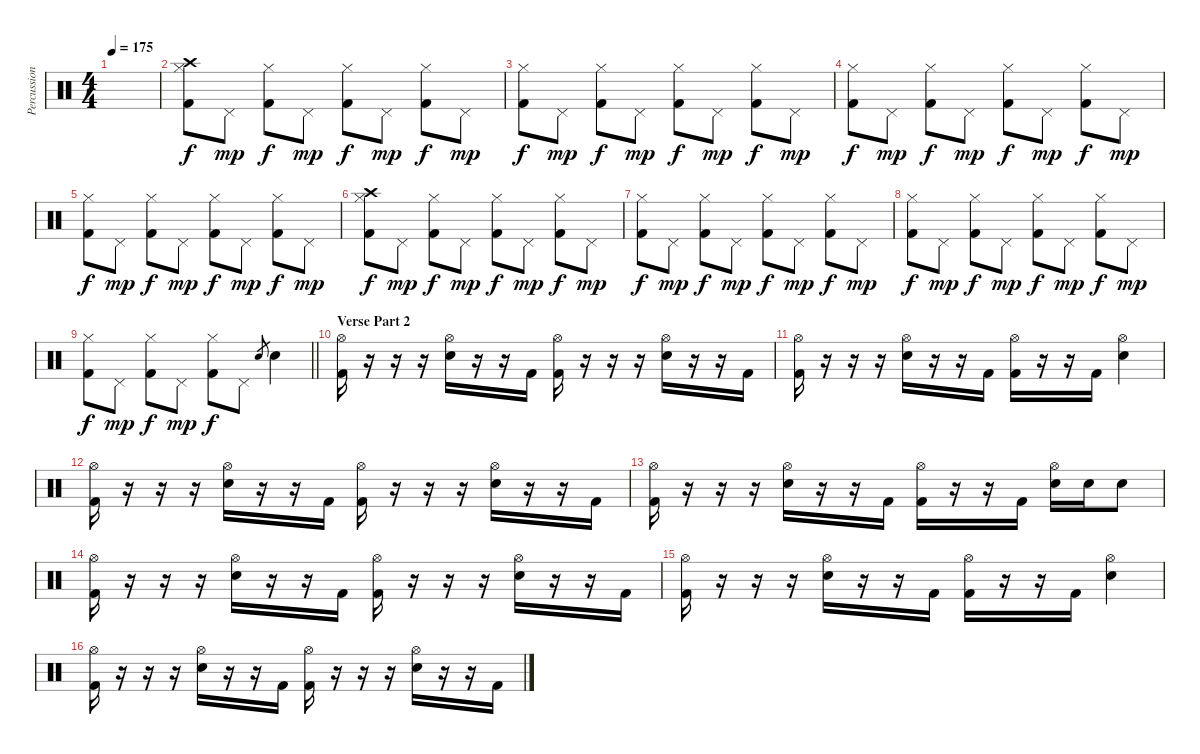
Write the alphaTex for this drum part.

\track ("Percussion" "Percussion") {instrument percussion}
\staff {score}
\articulation defaults
\ts (4 4)
\tempo 175
\clef neutral
\ks c
|
("Hi-Hat (closed)" "Kick (hit) 2" "Crash high (hit)").8 "Pedal Hi-Hat (hit)".8{dy mp} ("Hi-Hat (closed)" "Kick (hit) 2").8{dy f} "Pedal Hi-Hat (hit)".8{dy mp} ("Hi-Hat (closed)" "Kick (hit) 2").8{dy f} "Pedal Hi-Hat (hit)".8{dy mp} ("Hi-Hat (closed)" "Kick (hit) 2").8{dy f} "Pedal Hi-Hat (hit)".8{dy mp} |
("Hi-Hat (closed)" "Kick (hit) 2").8{dy f} "Pedal Hi-Hat (hit)".8{dy mp} ("Hi-Hat (closed)" "Kick (hit) 2").8{dy f} "Pedal Hi-Hat (hit)".8{dy mp} ("Hi-Hat (closed)" "Kick (hit) 2").8{dy f} "Pedal Hi-Hat (hit)".8{dy mp} ("Hi-Hat (closed)" "Kick (hit) 2").8{dy f} "Pedal Hi-Hat (hit)".8{dy mp} |
("Hi-Hat (closed)" "Kick (hit) 2").8{dy f} "Pedal Hi-Hat (hit)".8{dy mp} ("Hi-Hat (closed)" "Kick (hit) 2").8{dy f} "Pedal Hi-Hat (hit)".8{dy mp} ("Hi-Hat (closed)" "Kick (hit) 2").8{dy f} "Pedal Hi-Hat (hit)".8{dy mp} ("Hi-Hat (closed)" "Kick (hit) 2").8{dy f} "Pedal Hi-Hat (hit)".8{dy mp} |
("Hi-Hat (closed)" "Kick (hit) 2").8{dy f} "Pedal Hi-Hat (hit)".8{dy mp} ("Hi-Hat (closed)" "Kick (hit) 2").8{dy f} "Pedal Hi-Hat (hit)".8{dy mp} ("Hi-Hat (closed)" "Kick (hit) 2").8{dy f} "Pedal Hi-Hat (hit)".8{dy mp} ("Hi-Hat (closed)" "Kick (hit) 2").8{dy f} "Pedal Hi-Hat (hit)".8{dy mp} |
("Hi-Hat (closed)" "Kick (hit) 2" "Crash high (hit)").8{dy f} "Pedal Hi-Hat (hit)".8{dy mp} ("Hi-Hat (closed)" "Kick (hit) 2").8{dy f} "Pedal Hi-Hat (hit)".8{dy mp} ("Hi-Hat (closed)" "Kick (hit) 2").8{dy f} "Pedal Hi-Hat (hit)".8{dy mp} ("Hi-Hat (closed)" "Kick (hit) 2").8{dy f} "Pedal Hi-Hat (hit)".8{dy mp} |
("Hi-Hat (closed)" "Kick (hit) 2").8{dy f} "Pedal Hi-Hat (hit)".8{dy mp} ("Hi-Hat (closed)" "Kick (hit) 2").8{dy f} "Pedal Hi-Hat (hit)".8{dy mp} ("Hi-Hat (closed)" "Kick (hit) 2").8{dy f} "Pedal Hi-Hat (hit)".8{dy mp} ("Hi-Hat (closed)" "Kick (hit) 2").8{dy f} "Pedal Hi-Hat (hit)".8{dy mp} |
("Hi-Hat (closed)" "Kick (hit) 2").8{dy f} "Pedal Hi-Hat (hit)".8{dy mp} ("Hi-Hat (closed)" "Kick (hit) 2").8{dy f} "Pedal Hi-Hat (hit)".8{dy mp} ("Hi-Hat (closed)" "Kick (hit) 2").8{dy f} "Pedal Hi-Hat (hit)".8{dy mp} ("Hi-Hat (closed)" "Kick (hit) 2").8{dy f} "Pedal Hi-Hat (hit)".8{dy mp} |
\barLineRight lightlight
("Hi-Hat (closed)" "Kick (hit) 2").8{dy f} "Pedal Hi-Hat (hit)".8{dy mp} ("Hi-Hat (closed)" "Kick (hit) 2").8{dy f} "Pedal Hi-Hat (hit)".8{dy mp} ("Hi-Hat (closed)" "Kick (hit) 2").8{dy f} "Pedal Hi-Hat (hit)".8 "Electric Snare (hit)"{h}.8{gr} "Electric Snare (hit)".4 |
\section ("" "Verse Part 2")
("Hi-Hat (open)" "Kick (hit) 2").16 r.16 r.16 r.16 ("Hi-Hat (open)" "Electric Snare (hit)").16 r.16 r.16 "Kick (hit) 2".16 ("Hi-Hat (open)" "Kick (hit) 2").16 r.16 r.16 r.16 ("Hi-Hat (open)" "Electric Snare (hit)").16 r.16 r.16 "Kick (hit) 2".16 |
("Hi-Hat (open)" "Kick (hit) 2").16 r.16 r.16 r.16 ("Hi-Hat (open)" "Electric Snare (hit)").16 r.16 r.16 "Kick (hit) 2".16 ("Hi-Hat (open)" "Kick (hit) 2").16 r.16 r.16 "Kick (hit) 2".16 ("Hi-Hat (open)" "Electric Snare (hit)").4 |
("Hi-Hat (open)" "Kick (hit) 2").16 r.16 r.16 r.16 ("Hi-Hat (open)" "Electric Snare (hit)").16 r.16 r.16 "Kick (hit) 2".16 ("Hi-Hat (open)" "Kick (hit) 2").16 r.16 r.16 r.16 ("Hi-Hat (open)" "Electric Snare (hit)").16 r.16 r.16 "Kick (hit) 2".16 |
("Hi-Hat (open)" "Kick (hit) 2").16 r.16 r.16 r.16 ("Hi-Hat (open)" "Electric Snare (hit)").16 r.16 r.16 "Kick (hit) 2".16 ("Hi-Hat (open)" "Kick (hit) 2").16 r.16 r.16 "Kick (hit) 2".16 ("Hi-Hat (open)" "Electric Snare (hit)").16 "Electric Snare (hit)".16 "Electric Snare (hit)".8 |
("Hi-Hat (open)" "Kick (hit) 2").16 r.16 r.16 r.16 ("Hi-Hat (open)" "Electric Snare (hit)").16 r.16 r.16 "Kick (hit) 2".16 ("Hi-Hat (open)" "Kick (hit) 2").16 r.16 r.16 r.16 ("Hi-Hat (open)" "Electric Snare (hit)").16 r.16 r.16 "Kick (hit) 2".16 |
("Hi-Hat (open)" "Kick (hit) 2").16 r.16 r.16 r.16 ("Hi-Hat (open)" "Electric Snare (hit)").16 r.16 r.16 "Kick (hit) 2".16 ("Hi-Hat (open)" "Kick (hit) 2").16 r.16 r.16 "Kick (hit) 2".16 ("Hi-Hat (open)" "Electric Snare (hit)").4 |
("Hi-Hat (open)" "Kick (hit) 2").16 r.16 r.16 r.16 ("Hi-Hat (open)" "Electric Snare (hit)").16 r.16 r.16 "Kick (hit) 2".16 ("Hi-Hat (open)" "Kick (hit) 2").16 r.16 r.16 r.16 ("Hi-Hat (open)" "Electric Snare (hit)").16 r.16 r.16 "Kick (hit) 2".16
